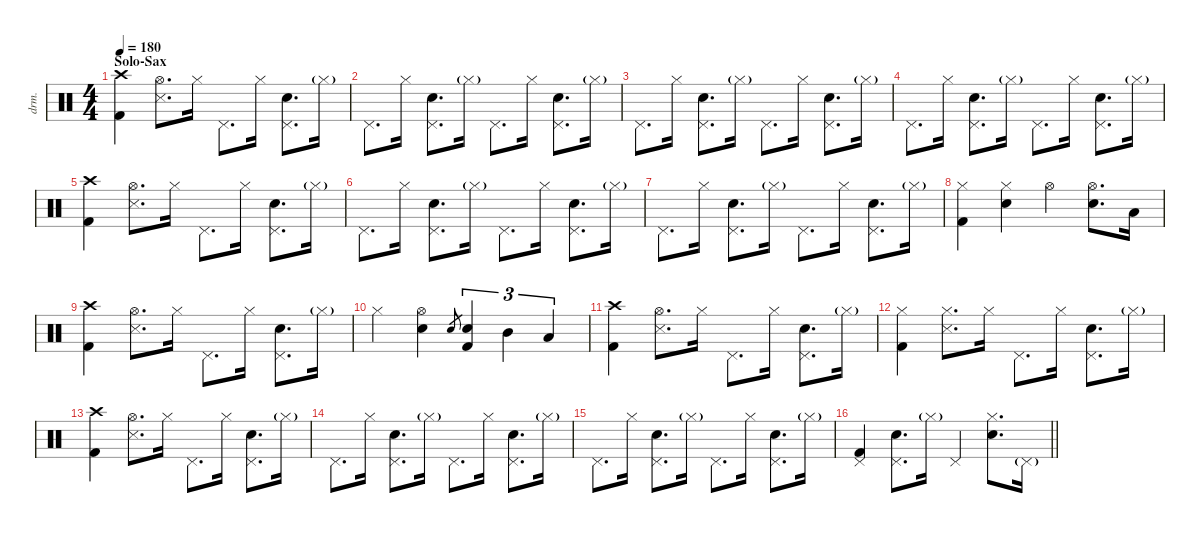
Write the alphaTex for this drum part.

\defaultSystemsLayout 4
\hideDynamics
\bracketExtendMode nobrackets
\otherSystemsTrackNameOrientation horizontal
\track ("Drums" "drm.") {instrument percussion}
\staff {score}
\articulation defaults
\ts (4 4)
\section ("" "Solo-Sax")
\tempo 180
\clef neutral
\ks c
("Crash high (hit)" "Kick (hit) 2").4{dy f} ("Hi-Hat (open)" "Snare (side stick) 3").8{d} "Hi-Hat (closed)".16 "Pedal Hi-Hat (hit)".8{d} "Hi-Hat (closed)".16 ("Pedal Hi-Hat (hit)" "Snare (hit) 2").8{d} "Hi-Hat (closed)"{g}.16{dy mf} |
"Pedal Hi-Hat (hit)".8{d dy f} "Hi-Hat (closed)".16 ("Pedal Hi-Hat (hit)" "Snare (hit) 2").8{d} "Hi-Hat (closed)"{g}.16{dy mf} "Pedal Hi-Hat (hit)".8{d dy f} "Hi-Hat (closed)".16 ("Pedal Hi-Hat (hit)" "Snare (hit) 2").8{d} "Hi-Hat (closed)"{g}.16{dy mf} |
"Pedal Hi-Hat (hit)".8{d dy f} "Hi-Hat (closed)".16 ("Pedal Hi-Hat (hit)" "Snare (hit) 2").8{d} "Hi-Hat (closed)"{g}.16{dy mf} "Pedal Hi-Hat (hit)".8{d dy f} "Hi-Hat (closed)".16 ("Pedal Hi-Hat (hit)" "Snare (hit) 2").8{d} "Hi-Hat (closed)"{g}.16{dy mf} |
"Pedal Hi-Hat (hit)".8{d dy f} "Hi-Hat (closed)".16 ("Pedal Hi-Hat (hit)" "Snare (hit) 2").8{d} "Hi-Hat (closed)"{g}.16{dy mf} "Pedal Hi-Hat (hit)".8{d dy f} "Hi-Hat (closed)".16 ("Pedal Hi-Hat (hit)" "Snare (hit) 2").8{d} "Hi-Hat (closed)"{g}.16{dy mf} |
("Crash high (hit)" "Kick (hit) 2").4{dy f} ("Hi-Hat (open)" "Snare (side stick) 3").8{d} "Hi-Hat (closed)".16 "Pedal Hi-Hat (hit)".8{d} "Hi-Hat (closed)".16 ("Pedal Hi-Hat (hit)" "Snare (hit) 2").8{d} "Hi-Hat (closed)"{g}.16{dy mf} |
"Pedal Hi-Hat (hit)".8{d dy f} "Hi-Hat (closed)".16 ("Pedal Hi-Hat (hit)" "Snare (hit) 2").8{d} "Hi-Hat (closed)"{g}.16{dy mf} "Pedal Hi-Hat (hit)".8{d dy f} "Hi-Hat (closed)".16 ("Pedal Hi-Hat (hit)" "Snare (hit) 2").8{d} "Hi-Hat (closed)"{g}.16{dy mf} |
"Pedal Hi-Hat (hit)".8{d dy f} "Hi-Hat (closed)".16 ("Pedal Hi-Hat (hit)" "Snare (hit) 2").8{d} "Hi-Hat (closed)"{g}.16{dy mf} "Pedal Hi-Hat (hit)".8{d dy f} "Hi-Hat (closed)".16 ("Pedal Hi-Hat (hit)" "Snare (hit) 2").8{d} "Hi-Hat (closed)"{g}.16{dy mf} |
("Hi-Hat (closed)" "Kick (hit) 2").4{dy f} ("Hi-Hat (closed)" "Snare (hit) 2").4 "Hi-Hat (open)".4 ("Hi-Hat (open)" "Snare (hit) 2").8{d} "Low Tom (hit)".16 |
("Crash high (hit)" "Kick (hit) 2").4 ("Hi-Hat (open)" "Snare (side stick) 3").8{d} "Hi-Hat (closed)".16 "Pedal Hi-Hat (hit)".8{d} "Hi-Hat (closed)".16 ("Pedal Hi-Hat (hit)" "Snare (hit) 2").8{d} "Hi-Hat (closed)"{g}.16{dy mf} |
"Hi-Hat (closed)".4{dy f} ("Hi-Hat (open)" "Snare (hit) 2").4 "Snare (hit) 2".8{gr dy mf} ("Snare (hit) 2" "Kick (hit) 2").4{tu (3 2) dy f} "Mid Tom (hit)".4{tu (3 2)} "Low Tom (hit)".4{tu (3 2)} |
("Crash high (hit)" "Kick (hit) 2").4 ("Hi-Hat (open)" "Snare (side stick) 3").8{d} "Hi-Hat (closed)".16 "Pedal Hi-Hat (hit)".8{d} "Hi-Hat (closed)".16 ("Pedal Hi-Hat (hit)" "Snare (hit) 2").8{d} "Hi-Hat (closed)"{g}.16{dy mf} |
("Hi-Hat (closed)" "Kick (hit) 2").4{dy f} ("Hi-Hat (closed)" "Snare (side stick) 3").8{d} "Hi-Hat (closed)".16 "Pedal Hi-Hat (hit)".8{d} "Hi-Hat (closed)".16 ("Pedal Hi-Hat (hit)" "Snare (hit) 2").8{d} "Hi-Hat (closed)"{g}.16{dy mf} |
("Crash high (hit)" "Kick (hit) 2").4{dy f} ("Hi-Hat (open)" "Snare (side stick) 3").8{d} "Hi-Hat (closed)".16 "Pedal Hi-Hat (hit)".8{d} "Hi-Hat (closed)".16 ("Pedal Hi-Hat (hit)" "Snare (hit) 2").8{d} "Hi-Hat (closed)"{g}.16{dy mf} |
"Pedal Hi-Hat (hit)".8{d dy f} "Hi-Hat (closed)".16 ("Pedal Hi-Hat (hit)" "Snare (hit) 2").8{d} "Hi-Hat (closed)"{g}.16{dy mf} "Pedal Hi-Hat (hit)".8{d dy f} "Hi-Hat (closed)".16 ("Pedal Hi-Hat (hit)" "Snare (hit) 2").8{d} "Hi-Hat (closed)"{g}.16{dy mf} |
"Pedal Hi-Hat (hit)".8{d dy f} "Hi-Hat (closed)".16 ("Pedal Hi-Hat (hit)" "Snare (hit) 2").8{d} "Hi-Hat (closed)"{g}.16{dy mf} "Pedal Hi-Hat (hit)".8{d dy f} "Hi-Hat (closed)".16 ("Pedal Hi-Hat (hit)" "Snare (hit) 2").8{d} "Hi-Hat (closed)"{g}.16{dy mf} |
\barLineRight lightlight
("Pedal Hi-Hat (hit)" "Kick (hit) 2").4{dy f} ("Pedal Hi-Hat (hit)" "Snare (hit) 2").8{d} "Hi-Hat (closed)"{g}.16{dy mf} "Pedal Hi-Hat (hit)".4{dy f} ("Hi-Hat (closed)" "Snare (hit) 2").8{d} "Pedal Hi-Hat (hit)"{g}.16{dy mf}
